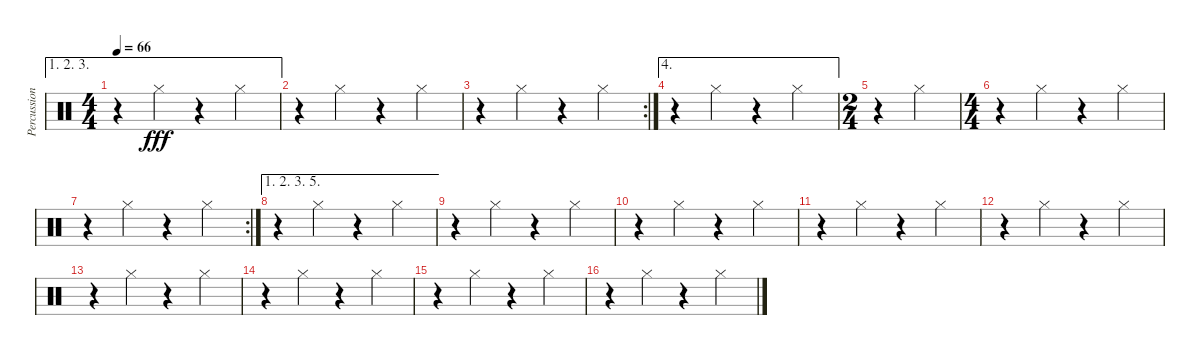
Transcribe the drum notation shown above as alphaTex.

\track ("Percussions" "Percussion") {instrument percussion}
\staff {score}
\articulation defaults
\ae (1 2 3)
\ts (4 4)
\tempo 66
\clef neutral
\ks c
r.4{dy fff} "Hi-Hat (closed)".4 r.4 "Hi-Hat (closed)".4 |
r.4 "Hi-Hat (closed)".4 r.4 "Hi-Hat (closed)".4 |
\rc 2
r.4 "Hi-Hat (closed)".4 r.4 "Hi-Hat (closed)".4 |
\ae 4
r.4 "Hi-Hat (closed)".4 r.4 "Hi-Hat (closed)".4 |
\ts (2 4)
r.4 "Hi-Hat (closed)".4 |
\ts (4 4)
r.4 "Hi-Hat (closed)".4 r.4 "Hi-Hat (closed)".4 |
\rc 2
r.4 "Hi-Hat (closed)".4 r.4 "Hi-Hat (closed)".4 |
\ae (1 2 3 5)
r.4 "Hi-Hat (closed)".4 r.4 "Hi-Hat (closed)".4 |
r.4 "Hi-Hat (closed)".4 r.4 "Hi-Hat (closed)".4 |
r.4 "Hi-Hat (closed)".4 r.4 "Hi-Hat (closed)".4 |
r.4 "Hi-Hat (closed)".4 r.4 "Hi-Hat (closed)".4 |
r.4 "Hi-Hat (closed)".4 r.4 "Hi-Hat (closed)".4 |
r.4 "Hi-Hat (closed)".4 r.4 "Hi-Hat (closed)".4 |
r.4 "Hi-Hat (closed)".4 r.4 "Hi-Hat (closed)".4 |
r.4 "Hi-Hat (closed)".4 r.4 "Hi-Hat (closed)".4 |
r.4 "Hi-Hat (closed)".4 r.4 "Hi-Hat (closed)".4
